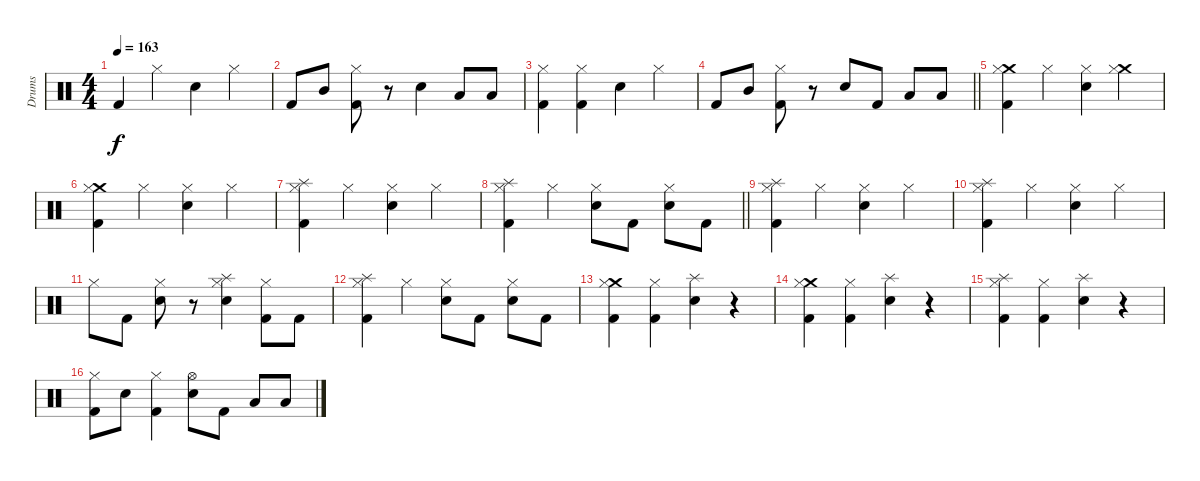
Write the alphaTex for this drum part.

\track ("Drums" "Drums") {instrument percussion}
\staff {score}
\articulation defaults
\ts (4 4)
\tempo 163
\clef neutral
\ks c "Kick (hit) 2".4{dy f} "Hi-Hat (closed)".4 "Snare (hit) 2".4 "Hi-Hat (closed)".4
|
"Kick (hit) 2".8 "Mid Tom (hit)".8 ("Hi-Hat (closed)" "Kick (hit) 2").8 r.8 "Snare (hit) 2".4 "Low Tom (hit)".8 "Low Tom (hit)".8 |
("Hi-Hat (closed)" "Kick (hit) 2").4 ("Hi-Hat (closed)" "Kick (hit) 2").4 "Snare (hit) 2".4 "Hi-Hat (closed)".4 |
\barLineRight lightlight "Kick (hit) 2".8 "Mid Tom (hit)".8
("Hi-Hat (closed)" "Kick (hit) 2").8 r.8 "Snare (hit) 2".8 "Kick (hit) 2".8 "Low Tom (hit)".8 "Low Tom (hit)".8 |
("Crash medium (hit)" "Kick (hit) 2" "Hi-Hat (closed)").4 "Hi-Hat (closed)".4 ("Snare (hit) 2" "Hi-Hat (closed)").4 ("Crash medium (hit)" "Hi-Hat (closed)").4 |
("Crash medium (hit)" "Kick (hit) 2" "Hi-Hat (closed)").4 "Hi-Hat (closed)".4 ("Snare (hit) 2" "Hi-Hat (closed)").4 "Hi-Hat (closed)".4 |
("Splash (hit)" "Kick (hit) 2" "Hi-Hat (closed)").4 "Hi-Hat (closed)".4 ("Snare (hit) 2" "Hi-Hat (closed)").4 "Hi-Hat (closed)".4 |
\barLineRight lightlight
("Splash (hit)" "Kick (hit) 2" "Hi-Hat (closed)").4 "Hi-Hat (closed)".4 ("Snare (hit) 2" "Hi-Hat (closed)").8 "Kick (hit) 2".8 ("Snare (hit) 2" "Hi-Hat (closed)").8 "Kick (hit) 2".8 |
("Splash (hit)" "Kick (hit) 2" "Hi-Hat (closed)").4 "Hi-Hat (closed)".4 ("Snare (hit) 2" "Hi-Hat (closed)").4 "Hi-Hat (closed)".4 |
("Splash (hit)" "Kick (hit) 2" "Hi-Hat (closed)").4 "Hi-Hat (closed)".4 ("Snare (hit) 2" "Hi-Hat (closed)").4 "Hi-Hat (closed)".4 |
"Hi-Hat (closed)".8 "Kick (hit) 2".8 ("Snare (hit) 2" "Hi-Hat (closed)").8 r.8 ("Splash (hit)" "Snare (hit) 2" "Hi-Hat (closed)").4 ("Kick (hit) 2" "Hi-Hat (closed)").8 "Kick (hit) 2".8 |
("Splash (hit)" "Kick (hit) 2" "Hi-Hat (closed)").4 "Hi-Hat (closed)".4 ("Snare (hit) 2" "Hi-Hat (closed)").8 "Kick (hit) 2".8 ("Snare (hit) 2" "Hi-Hat (closed)").8 "Kick (hit) 2".8 |
("Crash medium (hit)" "Kick (hit) 2" "Hi-Hat (closed)").4 ("Kick (hit) 2" "Hi-Hat (closed)").4 ("Splash (hit)" "Snare (hit) 2").4 r.4 |
("Crash medium (hit)" "Kick (hit) 2" "Hi-Hat (closed)").4 ("Kick (hit) 2" "Hi-Hat (closed)").4 ("Splash (hit)" "Snare (hit) 2").4 r.4 |
("Splash (hit)" "Kick (hit) 2" "Hi-Hat (closed)").4 ("Kick (hit) 2" "Hi-Hat (closed)").4 ("Splash (hit)" "Snare (hit) 2").4 r.4 |
("Kick (hit) 2" "Hi-Hat (closed)").8 "Snare (hit) 2".8 ("Kick (hit) 2" "Hi-Hat (closed)").4 ("Hi-Hat (open)" "Snare (hit) 2").8 "Kick (hit) 2".8 "Low Tom (hit)".8 "Low Tom (hit)".8
